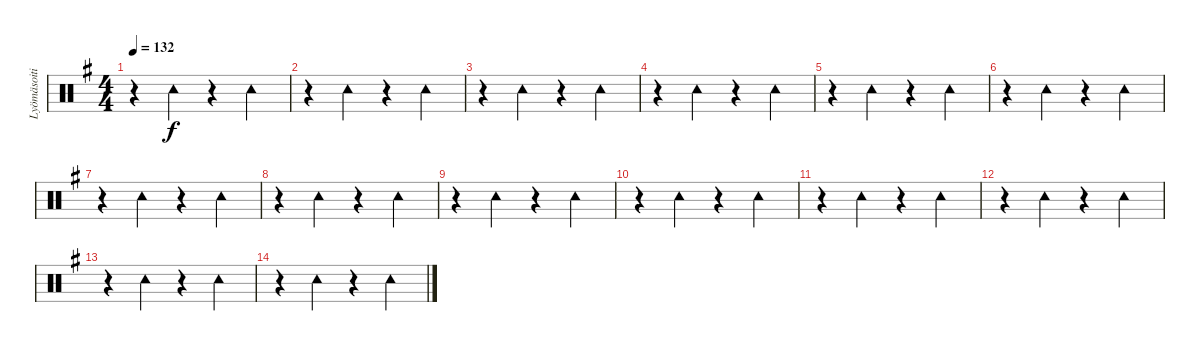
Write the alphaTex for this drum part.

\track ("Lyömäsoitin" "Lyömäsoiti") {instrument percussion}
\staff {score}
\articulation defaults
\ts (4 4)
\tempo 132
\clef neutral
\ks eminor
r.4{dy f} "Tambourine (hit)".4 r.4 "Tambourine (hit)".4 |
r.4 "Tambourine (hit)".4 r.4 "Tambourine (hit)".4 |
r.4 "Tambourine (hit)".4 r.4 "Tambourine (hit)".4 |
r.4 "Tambourine (hit)".4 r.4 "Tambourine (hit)".4 |
r.4 "Tambourine (hit)".4 r.4 "Tambourine (hit)".4 |
r.4 "Tambourine (hit)".4 r.4 "Tambourine (hit)".4 |
r.4 "Tambourine (hit)".4 r.4 "Tambourine (hit)".4 |
r.4 "Tambourine (hit)".4 r.4 "Tambourine (hit)".4 |
r.4 "Tambourine (hit)".4 r.4 "Tambourine (hit)".4 |
r.4 "Tambourine (hit)".4 r.4 "Tambourine (hit)".4 |
r.4 "Tambourine (hit)".4 r.4 "Tambourine (hit)".4 |
r.4 "Tambourine (hit)".4 r.4 "Tambourine (hit)".4 |
r.4 "Tambourine (hit)".4 r.4 "Tambourine (hit)".4 |
r.4 "Tambourine (hit)".4 r.4 "Tambourine (hit)".4
